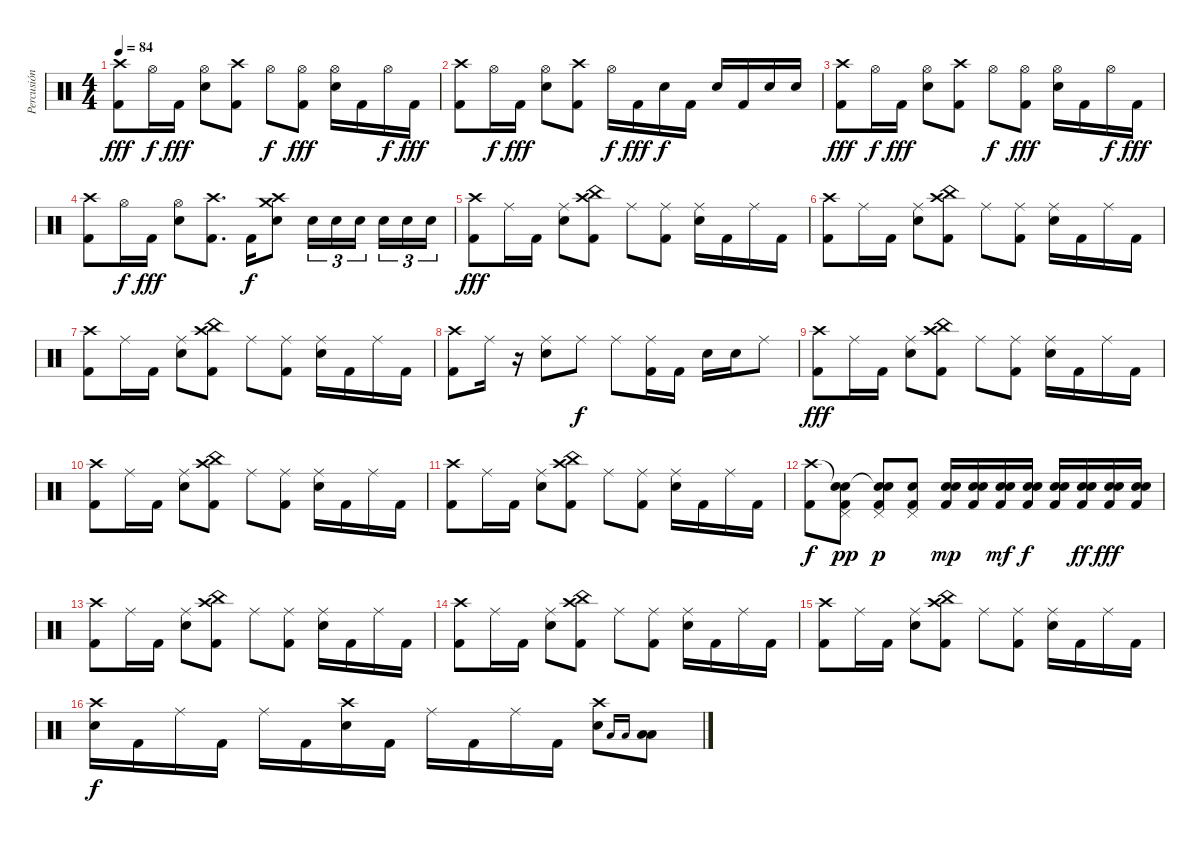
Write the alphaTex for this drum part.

\track ("Percusión" "Percusión") {instrument percussion}
\staff {score}
\articulation defaults
\ts (4 4)
\tempo 84
\clef neutral
\ks c
("Crash high (hit)" "Kick (hit) 2").8{dy fff} "Hi-Hat (open)".16{dy f} "Kick (hit) 2".16{dy fff} ("Hi-Hat (open)" "Snare (hit) 2").8 ("Crash high (hit)" "Kick (hit) 2").8 "Hi-Hat (open)".8{dy f} ("Hi-Hat (open)" "Kick (hit) 2").8{dy fff} ("Hi-Hat (open)" "Snare (hit) 2").16 "Kick (hit) 2".16 "Hi-Hat (open)".16{dy f} "Kick (hit) 2".16{dy fff} |
("Crash high (hit)" "Kick (hit) 2").8 "Hi-Hat (open)".16{dy f} "Kick (hit) 2".16{dy fff} ("Hi-Hat (open)" "Snare (hit) 2").8 ("Crash high (hit)" "Kick (hit) 2").8 "Hi-Hat (open)".16{dy f} "Kick (hit) 2".16{dy fff} "Snare (hit) 2".16{dy f} "Kick (hit) 2".16 "Snare (hit) 2".16 "Kick (hit) 2".16 "Snare (hit) 2".16 "Snare (hit) 2".16 |
("Crash high (hit)" "Kick (hit) 2").8{dy fff} "Hi-Hat (open)".16{dy f} "Kick (hit) 2".16{dy fff} ("Hi-Hat (open)" "Snare (hit) 2").8 ("Crash high (hit)" "Kick (hit) 2").8 "Hi-Hat (open)".8{dy f} ("Hi-Hat (open)" "Kick (hit) 2").8{dy fff} ("Hi-Hat (open)" "Snare (hit) 2").16 "Kick (hit) 2".16 "Hi-Hat (open)".16{dy f} "Kick (hit) 2".16{dy fff} |
("Crash high (hit)" "Kick (hit) 2").8 "Hi-Hat (open)".16{dy f} "Kick (hit) 2".16{dy fff} ("Hi-Hat (open)" "Snare (hit) 2").8 ("Crash high (hit)" "Kick (hit) 2").8{d} "Kick (hit) 2".16{dy f} ("Crash high (hit)" "Crash medium (hit)" "Snare (hit) 2").8 "Snare (hit) 2".16{tu (3 2)} "Snare (hit) 2".16{tu (3 2)} "Snare (hit) 2".16{tu (3 2) beam splitsecondary} "Snare (hit) 2".16{tu (3 2)} "Snare (hit) 2".16{tu (3 2)} "Snare (hit) 2".16{tu (3 2)} |
("Crash high (hit)" "Kick (hit) 2").8{dy fff} "Ride (middle)".16 "Kick (hit) 2".16 ("Ride (middle)" "Snare (hit) 2").8 ("Crash high (hit)" "China (hit)" "Kick (hit) 2").8 "Ride (middle)".8 ("Ride (middle)" "Kick (hit) 2").8 ("Ride (middle)" "Snare (hit) 2").16 "Kick (hit) 2".16 "Ride (middle)".16 "Kick (hit) 2".16 |
("Crash high (hit)" "Kick (hit) 2").8 "Ride (middle)".16 "Kick (hit) 2".16 ("Ride (middle)" "Snare (hit) 2").8 ("Crash high (hit)" "China (hit)" "Kick (hit) 2").8 "Ride (middle)".8 ("Ride (middle)" "Kick (hit) 2").8 ("Ride (middle)" "Snare (hit) 2").16 "Kick (hit) 2".16 "Ride (middle)".16 "Kick (hit) 2".16 |
("Crash high (hit)" "Kick (hit) 2").8 "Ride (middle)".16 "Kick (hit) 2".16 ("Ride (middle)" "Snare (hit) 2").8 ("Crash high (hit)" "China (hit)" "Kick (hit) 2").8 "Ride (middle)".8 ("Ride (middle)" "Kick (hit) 2").8 ("Ride (middle)" "Snare (hit) 2").16 "Kick (hit) 2".16 "Ride (middle)".16 "Kick (hit) 2".16 |
("Crash high (hit)" "Kick (hit) 2").8 "Ride (middle)".16 r.16 ("Ride (middle)" "Snare (hit) 2").8 "Ride (middle)".8{dy f} "Ride (middle)".8 ("Ride (middle)" "Kick (hit) 2").16 "Kick (hit) 2".16 "Snare (hit) 2".16 "Snare (hit) 2".16 "Ride (middle)".8 |
("Crash high (hit)" "Kick (hit) 2").8{dy fff} "Ride (middle)".16 "Kick (hit) 2".16 ("Ride (middle)" "Snare (hit) 2").8 ("Crash high (hit)" "China (hit)" "Kick (hit) 2").8 "Ride (middle)".8 ("Ride (middle)" "Kick (hit) 2").8 ("Ride (middle)" "Snare (hit) 2").16 "Kick (hit) 2".16 "Ride (middle)".16 "Kick (hit) 2".16 |
("Crash high (hit)" "Kick (hit) 2").8 "Ride (middle)".16 "Kick (hit) 2".16 ("Ride (middle)" "Snare (hit) 2").8 ("Crash high (hit)" "China (hit)" "Kick (hit) 2").8 "Ride (middle)".8 ("Ride (middle)" "Kick (hit) 2").8 ("Ride (middle)" "Snare (hit) 2").16 "Kick (hit) 2".16 "Ride (middle)".16 "Kick (hit) 2".16 |
("Crash high (hit)" "Kick (hit) 2").8 "Ride (middle)".16 "Kick (hit) 2".16 ("Ride (middle)" "Snare (hit) 2").8 ("Crash high (hit)" "China (hit)" "Kick (hit) 2").8 "Ride (middle)".8 ("Ride (middle)" "Kick (hit) 2").8 ("Ride (middle)" "Snare (hit) 2").16 "Kick (hit) 2".16 "Ride (middle)".16 "Kick (hit) 2".16 |
("Crash high (hit)" "Kick (hit) 2").8{dy f} ("Snare (hit)"{t} "Pedal Hi-Hat (hit)" "Electric Snare (hit)" "Kick (hit) 2").8{dy pp} ("Snare (hit)"{t} "Pedal Hi-Hat (hit)" "Electric Snare (hit)" "Kick (hit) 2").8{dy p} ("Pedal Hi-Hat (hit)" "Electric Snare (hit)" "Kick (hit) 2").8 ("Snare (hit) 2" "Electric Snare (hit)" "Kick (hit) 2").16{dy mp} ("Snare (hit) 2" "Electric Snare (hit)" "Kick (hit) 2").16 ("Snare (hit) 2" "Electric Snare (hit)" "Kick (hit) 2").16{dy mf} ("Snare (hit) 2" "Electric Snare (hit)" "Kick (hit) 2").16{dy f} ("Snare (hit) 2" "Electric Snare (hit)" "Kick (hit) 2").16 ("Snare (hit) 2" "Electric Snare (hit)" "Kick (hit) 2").16{dy ff} ("Snare (hit) 2" "Electric Snare (hit)" "Kick (hit) 2").16{dy fff} ("Snare (hit) 2" "Electric Snare (hit)" "Kick (hit) 2").16 |
("Crash high (hit)" "Kick (hit) 2").8 "Ride (middle)".16 "Kick (hit) 2".16 ("Ride (middle)" "Snare (hit) 2").8 ("Crash high (hit)" "China (hit)" "Kick (hit) 2").8 "Ride (middle)".8 ("Ride (middle)" "Kick (hit) 2").8 ("Ride (middle)" "Snare (hit) 2").16 "Kick (hit) 2".16 "Ride (middle)".16 "Kick (hit) 2".16 |
("Crash high (hit)" "Kick (hit) 2").8 "Ride (middle)".16 "Kick (hit) 2".16 ("Ride (middle)" "Snare (hit) 2").8 ("Crash high (hit)" "China (hit)" "Kick (hit) 2").8 "Ride (middle)".8 ("Ride (middle)" "Kick (hit) 2").8 ("Ride (middle)" "Snare (hit) 2").16 "Kick (hit) 2".16 "Ride (middle)".16 "Kick (hit) 2".16 |
("Crash high (hit)" "Kick (hit) 2").8 "Ride (middle)".16 "Kick (hit) 2".16 ("Ride (middle)" "Snare (hit) 2").8 ("Crash high (hit)" "China (hit)" "Kick (hit) 2").8 "Ride (middle)".8 ("Ride (middle)" "Kick (hit) 2").8 ("Ride (middle)" "Snare (hit) 2").16 "Kick (hit) 2".16 "Ride (middle)".16 "Kick (hit) 2".16 |
("Crash high (hit)" "Snare (hit) 2").16{dy f} "Kick (hit) 2".16 "Ride (middle)".16 "Kick (hit) 2".16 "Ride (middle)".16 "Kick (hit) 2".16 ("Crash high (hit)" "Snare (hit) 2").16 "Kick (hit) 2".16 "Ride (middle)".16 "Kick (hit) 2".16 "Ride (middle)".16 "Kick (hit) 2".16 ("Crash high (hit)" "Snare (hit) 2").8 "Low Tom (hit)".16{gr onbeat} "Low Tom (hit)".16{gr onbeat} ("Low Tom (hit)" "Low Tom (hit)").8
